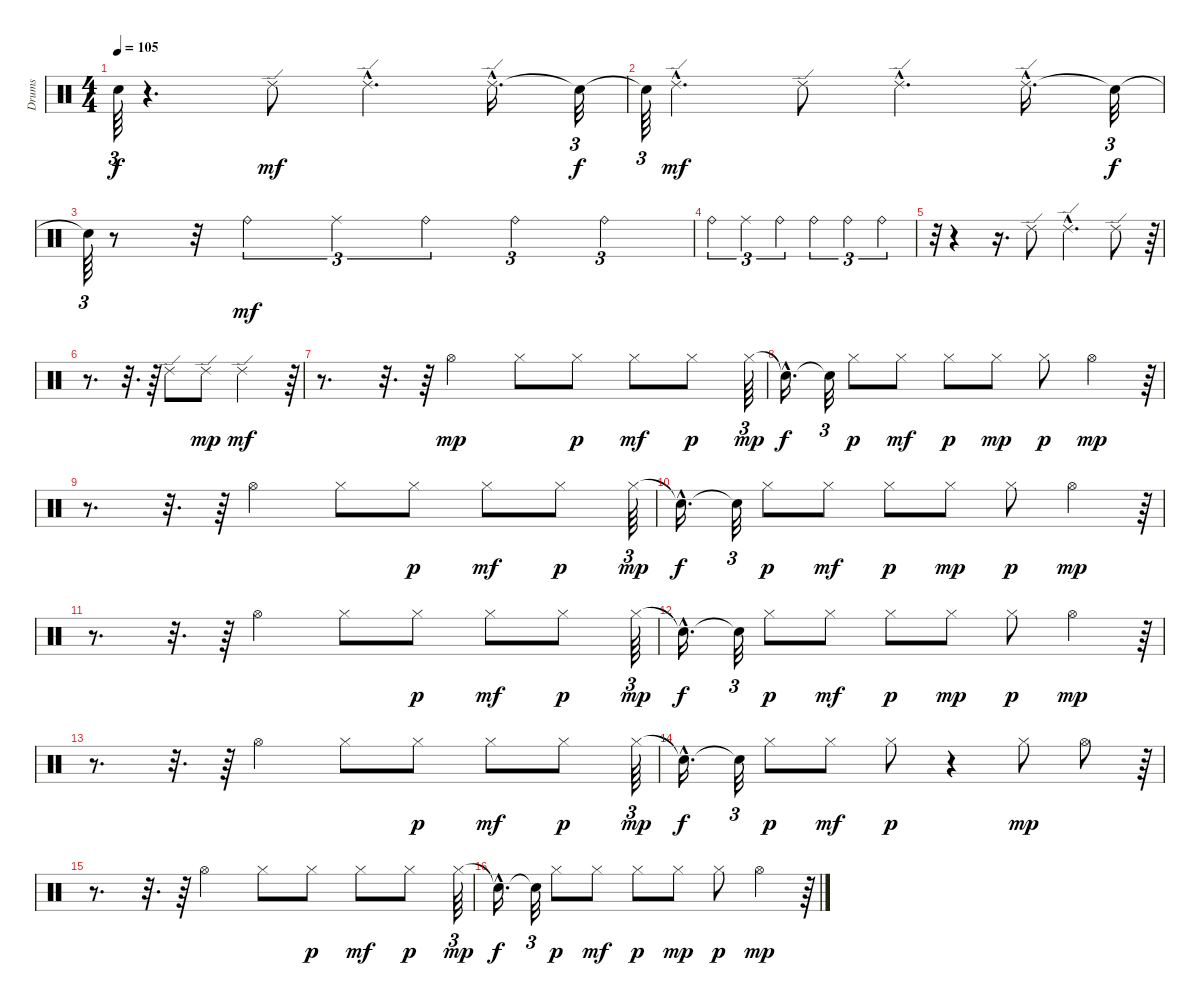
\track ("Drums" "Drums") {instrument percussion}
\staff {score}
\articulation defaults
\ts (4 4)
\tempo 105
\clef neutral
\ks c "Snare (hit)"{t}.64{tu (3 2) dy f}
r.4{d} "Ride (edge) 2".8{dy mf} "Ride (edge) 2"{hac}.4{d} "Ride (edge) 2"{hac}.16{d} "Snare (hit)"{t}.32{tu (3 2) dy f} |
"Snare (hit)"{t}.64{tu (3 2)} "Ride (edge) 2"{hac}.4{d dy mf} "Ride (edge) 2".8 "Ride (edge) 2"{hac}.4{d} "Ride (edge) 2"{hac}.16{d} "Snare (hit)"{t}.32{tu (3 2) dy f} |
"Snare (hit)"{t}.64{tu (3 2)} r.8 r.32 "Ride (bell)".4{tu (3 2) dy mf} "Ride (middle)".4{tu (3 2)} "Ride (bell)".4{tu (3 2)} "Ride (bell)".4{tu (3 2)} "Ride (bell)".4{tu (3 2)} |
"Ride (bell)".4{tu (3 2)} "Ride (middle)".4{tu (3 2)} "Ride (bell)".4{tu (3 2)} "Ride (bell)".4{tu (3 2)} "Ride (bell)".4{tu (3 2)} "Ride (bell)".4{tu (3 2)} |
r.32{tu (3 2)} r.4 r.16{d} "Ride (edge) 2".8 "Ride (edge) 2"{hac}.4{d} "Ride (edge) 2".8 r.64{tu (3 2)} |
r.8{d} r.32{d} r.64 "Ride (edge) 2".8 "Ride (edge) 2".8{dy mp} "Ride (edge) 2".2{dy mf} r.64{tu (3 2)} |
r.8{d} r.32{d} r.64 "Hi-Hat (open)".4{dy mp} "Hi-Hat (closed)".8 "Hi-Hat (closed)".8{dy p} "Hi-Hat (closed)".8{dy mf} "Hi-Hat (closed)".8{dy p} "Hi-Hat (closed)".64{tu (3 2) dy mp} |
"Snare (hit)"{hac t}.16{d dy f} "Snare (hit)"{t}.32{tu (3 2)} "Hi-Hat (closed)".8{dy p} "Hi-Hat (closed)".8{dy mf} "Hi-Hat (closed)".8{dy p} "Hi-Hat (closed)".8{dy mp} "Hi-Hat (closed)".8{dy p} "Hi-Hat (open)".4{dy mp} r.64{tu (3 2)} |
r.8{d} r.32{d} r.64 "Hi-Hat (open)".4 "Hi-Hat (closed)".8 "Hi-Hat (closed)".8{dy p} "Hi-Hat (closed)".8{dy mf} "Hi-Hat (closed)".8{dy p} "Hi-Hat (closed)".64{tu (3 2) dy mp} |
"Snare (hit)"{hac t}.16{d dy f} "Snare (hit)"{t}.32{tu (3 2)} "Hi-Hat (closed)".8{dy p} "Hi-Hat (closed)".8{dy mf} "Hi-Hat (closed)".8{dy p} "Hi-Hat (closed)".8{dy mp} "Hi-Hat (closed)".8{dy p} "Hi-Hat (open)".4{dy mp} r.64{tu (3 2)} |
r.8{d} r.32{d} r.64 "Hi-Hat (open)".4 "Hi-Hat (closed)".8 "Hi-Hat (closed)".8{dy p} "Hi-Hat (closed)".8{dy mf} "Hi-Hat (closed)".8{dy p} "Hi-Hat (closed)".64{tu (3 2) dy mp} |
"Snare (hit)"{hac t}.16{d dy f} "Snare (hit)"{t}.32{tu (3 2)} "Hi-Hat (closed)".8{dy p} "Hi-Hat (closed)".8{dy mf} "Hi-Hat (closed)".8{dy p} "Hi-Hat (closed)".8{dy mp} "Hi-Hat (closed)".8{dy p} "Hi-Hat (open)".4{dy mp} r.64{tu (3 2)} |
r.8{d} r.32{d} r.64 "Hi-Hat (open)".4 "Hi-Hat (closed)".8 "Hi-Hat (closed)".8{dy p} "Hi-Hat (closed)".8{dy mf} "Hi-Hat (closed)".8{dy p} "Hi-Hat (closed)".64{tu (3 2) dy mp} |
"Snare (hit)"{hac t}.16{d dy f} "Snare (hit)"{t}.32{tu (3 2)} "Hi-Hat (closed)".8{dy p} "Hi-Hat (closed)".8{dy mf} "Hi-Hat (closed)".8{dy p} r.4 "Hi-Hat (closed)".8{dy mp} "Hi-Hat (open)".8 r.64{tu (3 2)} |
r.8{d} r.32{d} r.64 "Hi-Hat (open)".4 "Hi-Hat (closed)".8 "Hi-Hat (closed)".8{dy p} "Hi-Hat (closed)".8{dy mf} "Hi-Hat (closed)".8{dy p} "Hi-Hat (closed)".64{tu (3 2) dy mp} |
"Snare (hit)"{hac t}.16{d dy f} "Snare (hit)"{t}.32{tu (3 2)} "Hi-Hat (closed)".8{dy p} "Hi-Hat (closed)".8{dy mf} "Hi-Hat (closed)".8{dy p} "Hi-Hat (closed)".8{dy mp} "Hi-Hat (closed)".8{dy p} "Hi-Hat (open)".4{dy mp} r.64{tu (3 2)}
